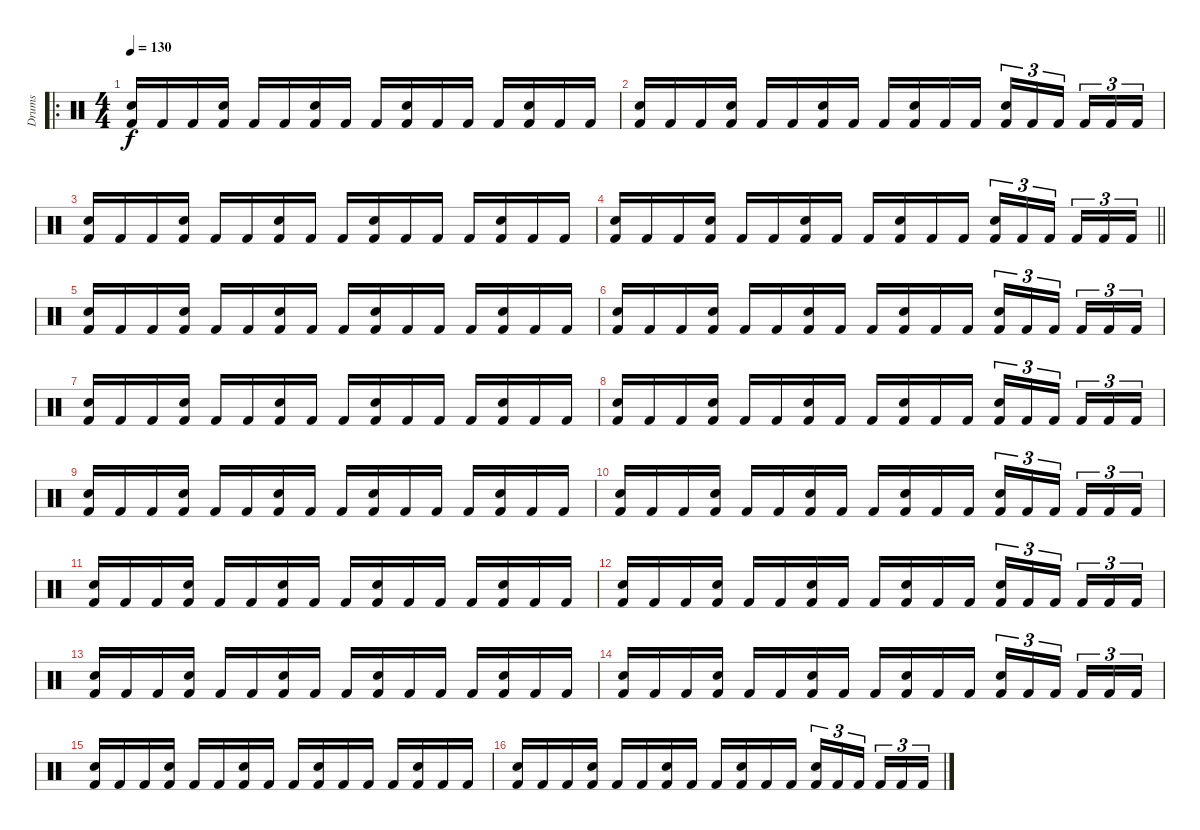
\track ("Drums" "Drums") {instrument percussion}
\staff {score}
\articulation defaults
\ro
\ts (4 4)
\tempo 130
\clef neutral
\ks c
("Electric Snare (hit)" "Kick (hit) 2").16{dy f} "Kick (hit) 2".16 "Kick (hit) 2".16 ("Electric Snare (hit)" "Kick (hit) 2").16 "Kick (hit) 2".16 "Kick (hit) 2".16 ("Electric Snare (hit)" "Kick (hit) 2").16 "Kick (hit) 2".16 "Kick (hit) 2".16 ("Electric Snare (hit)" "Kick (hit) 2").16 "Kick (hit) 2".16 "Kick (hit) 2".16 "Kick (hit) 2".16 ("Electric Snare (hit)" "Kick (hit) 2").16 "Kick (hit) 2".16 "Kick (hit) 2".16 |
("Electric Snare (hit)" "Kick (hit) 2").16 "Kick (hit) 2".16 "Kick (hit) 2".16 ("Electric Snare (hit)" "Kick (hit) 2").16 "Kick (hit) 2".16 "Kick (hit) 2".16 ("Electric Snare (hit)" "Kick (hit) 2").16 "Kick (hit) 2".16 "Kick (hit) 2".16 ("Electric Snare (hit)" "Kick (hit) 2").16 "Kick (hit) 2".16 "Kick (hit) 2".16 ("Electric Snare (hit)" "Kick (hit) 2").16{tu (3 2)} "Kick (hit) 2".16{tu (3 2)} "Kick (hit) 2".16{tu (3 2)} "Kick (hit) 2".16{tu (3 2)} "Kick (hit) 2".16{tu (3 2)} "Kick (hit) 2".16{tu (3 2)} |
("Electric Snare (hit)" "Kick (hit) 2").16 "Kick (hit) 2".16 "Kick (hit) 2".16 ("Electric Snare (hit)" "Kick (hit) 2").16 "Kick (hit) 2".16 "Kick (hit) 2".16 ("Electric Snare (hit)" "Kick (hit) 2").16 "Kick (hit) 2".16 "Kick (hit) 2".16 ("Electric Snare (hit)" "Kick (hit) 2").16 "Kick (hit) 2".16 "Kick (hit) 2".16 "Kick (hit) 2".16 ("Electric Snare (hit)" "Kick (hit) 2").16 "Kick (hit) 2".16 "Kick (hit) 2".16 |
\barLineRight lightlight
("Electric Snare (hit)" "Kick (hit) 2").16 "Kick (hit) 2".16 "Kick (hit) 2".16 ("Electric Snare (hit)" "Kick (hit) 2").16 "Kick (hit) 2".16 "Kick (hit) 2".16 ("Electric Snare (hit)" "Kick (hit) 2").16 "Kick (hit) 2".16 "Kick (hit) 2".16 ("Electric Snare (hit)" "Kick (hit) 2").16 "Kick (hit) 2".16 "Kick (hit) 2".16 ("Electric Snare (hit)" "Kick (hit) 2").16{tu (3 2)} "Kick (hit) 2".16{tu (3 2)} "Kick (hit) 2".16{tu (3 2)} "Kick (hit) 2".16{tu (3 2)} "Kick (hit) 2".16{tu (3 2)} "Kick (hit) 2".16{tu (3 2)} |
("Electric Snare (hit)" "Kick (hit) 2").16 "Kick (hit) 2".16 "Kick (hit) 2".16 ("Electric Snare (hit)" "Kick (hit) 2").16 "Kick (hit) 2".16 "Kick (hit) 2".16 ("Electric Snare (hit)" "Kick (hit) 2").16 "Kick (hit) 2".16 "Kick (hit) 2".16 ("Electric Snare (hit)" "Kick (hit) 2").16 "Kick (hit) 2".16 "Kick (hit) 2".16 "Kick (hit) 2".16 ("Electric Snare (hit)" "Kick (hit) 2").16 "Kick (hit) 2".16 "Kick (hit) 2".16 |
("Electric Snare (hit)" "Kick (hit) 2").16 "Kick (hit) 2".16 "Kick (hit) 2".16 ("Electric Snare (hit)" "Kick (hit) 2").16 "Kick (hit) 2".16 "Kick (hit) 2".16 ("Electric Snare (hit)" "Kick (hit) 2").16 "Kick (hit) 2".16 "Kick (hit) 2".16 ("Electric Snare (hit)" "Kick (hit) 2").16 "Kick (hit) 2".16 "Kick (hit) 2".16 ("Electric Snare (hit)" "Kick (hit) 2").16{tu (3 2)} "Kick (hit) 2".16{tu (3 2)} "Kick (hit) 2".16{tu (3 2)} "Kick (hit) 2".16{tu (3 2)} "Kick (hit) 2".16{tu (3 2)} "Kick (hit) 2".16{tu (3 2)} |
("Electric Snare (hit)" "Kick (hit) 2").16 "Kick (hit) 2".16 "Kick (hit) 2".16 ("Electric Snare (hit)" "Kick (hit) 2").16 "Kick (hit) 2".16 "Kick (hit) 2".16 ("Electric Snare (hit)" "Kick (hit) 2").16 "Kick (hit) 2".16 "Kick (hit) 2".16 ("Electric Snare (hit)" "Kick (hit) 2").16 "Kick (hit) 2".16 "Kick (hit) 2".16 "Kick (hit) 2".16 ("Electric Snare (hit)" "Kick (hit) 2").16 "Kick (hit) 2".16 "Kick (hit) 2".16 |
("Electric Snare (hit)" "Kick (hit) 2").16 "Kick (hit) 2".16 "Kick (hit) 2".16 ("Electric Snare (hit)" "Kick (hit) 2").16 "Kick (hit) 2".16 "Kick (hit) 2".16 ("Electric Snare (hit)" "Kick (hit) 2").16 "Kick (hit) 2".16 "Kick (hit) 2".16 ("Electric Snare (hit)" "Kick (hit) 2").16 "Kick (hit) 2".16 "Kick (hit) 2".16 ("Electric Snare (hit)" "Kick (hit) 2").16{tu (3 2)} "Kick (hit) 2".16{tu (3 2)} "Kick (hit) 2".16{tu (3 2)} "Kick (hit) 2".16{tu (3 2)} "Kick (hit) 2".16{tu (3 2)} "Kick (hit) 2".16{tu (3 2)} |
("Electric Snare (hit)" "Kick (hit) 2").16 "Kick (hit) 2".16 "Kick (hit) 2".16 ("Electric Snare (hit)" "Kick (hit) 2").16 "Kick (hit) 2".16 "Kick (hit) 2".16 ("Electric Snare (hit)" "Kick (hit) 2").16 "Kick (hit) 2".16 "Kick (hit) 2".16 ("Electric Snare (hit)" "Kick (hit) 2").16 "Kick (hit) 2".16 "Kick (hit) 2".16 "Kick (hit) 2".16 ("Electric Snare (hit)" "Kick (hit) 2").16 "Kick (hit) 2".16 "Kick (hit) 2".16 |
("Electric Snare (hit)" "Kick (hit) 2").16 "Kick (hit) 2".16 "Kick (hit) 2".16 ("Electric Snare (hit)" "Kick (hit) 2").16 "Kick (hit) 2".16 "Kick (hit) 2".16 ("Electric Snare (hit)" "Kick (hit) 2").16 "Kick (hit) 2".16 "Kick (hit) 2".16 ("Electric Snare (hit)" "Kick (hit) 2").16 "Kick (hit) 2".16 "Kick (hit) 2".16 ("Electric Snare (hit)" "Kick (hit) 2").16{tu (3 2)} "Kick (hit) 2".16{tu (3 2)} "Kick (hit) 2".16{tu (3 2)} "Kick (hit) 2".16{tu (3 2)} "Kick (hit) 2".16{tu (3 2)} "Kick (hit) 2".16{tu (3 2)} |
("Electric Snare (hit)" "Kick (hit) 2").16 "Kick (hit) 2".16 "Kick (hit) 2".16 ("Electric Snare (hit)" "Kick (hit) 2").16 "Kick (hit) 2".16 "Kick (hit) 2".16 ("Electric Snare (hit)" "Kick (hit) 2").16 "Kick (hit) 2".16 "Kick (hit) 2".16 ("Electric Snare (hit)" "Kick (hit) 2").16 "Kick (hit) 2".16 "Kick (hit) 2".16 "Kick (hit) 2".16 ("Electric Snare (hit)" "Kick (hit) 2").16 "Kick (hit) 2".16 "Kick (hit) 2".16 |
("Electric Snare (hit)" "Kick (hit) 2").16 "Kick (hit) 2".16 "Kick (hit) 2".16 ("Electric Snare (hit)" "Kick (hit) 2").16 "Kick (hit) 2".16 "Kick (hit) 2".16 ("Electric Snare (hit)" "Kick (hit) 2").16 "Kick (hit) 2".16 "Kick (hit) 2".16 ("Electric Snare (hit)" "Kick (hit) 2").16 "Kick (hit) 2".16 "Kick (hit) 2".16 ("Electric Snare (hit)" "Kick (hit) 2").16{tu (3 2)} "Kick (hit) 2".16{tu (3 2)} "Kick (hit) 2".16{tu (3 2)} "Kick (hit) 2".16{tu (3 2)} "Kick (hit) 2".16{tu (3 2)} "Kick (hit) 2".16{tu (3 2)} |
("Electric Snare (hit)" "Kick (hit) 2").16 "Kick (hit) 2".16 "Kick (hit) 2".16 ("Electric Snare (hit)" "Kick (hit) 2").16 "Kick (hit) 2".16 "Kick (hit) 2".16 ("Electric Snare (hit)" "Kick (hit) 2").16 "Kick (hit) 2".16 "Kick (hit) 2".16 ("Electric Snare (hit)" "Kick (hit) 2").16 "Kick (hit) 2".16 "Kick (hit) 2".16 "Kick (hit) 2".16 ("Electric Snare (hit)" "Kick (hit) 2").16 "Kick (hit) 2".16 "Kick (hit) 2".16 |
("Electric Snare (hit)" "Kick (hit) 2").16 "Kick (hit) 2".16 "Kick (hit) 2".16 ("Electric Snare (hit)" "Kick (hit) 2").16 "Kick (hit) 2".16 "Kick (hit) 2".16 ("Electric Snare (hit)" "Kick (hit) 2").16 "Kick (hit) 2".16 "Kick (hit) 2".16 ("Electric Snare (hit)" "Kick (hit) 2").16 "Kick (hit) 2".16 "Kick (hit) 2".16 ("Electric Snare (hit)" "Kick (hit) 2").16{tu (3 2)} "Kick (hit) 2".16{tu (3 2)} "Kick (hit) 2".16{tu (3 2)} "Kick (hit) 2".16{tu (3 2)} "Kick (hit) 2".16{tu (3 2)} "Kick (hit) 2".16{tu (3 2)} |
("Electric Snare (hit)" "Kick (hit) 2").16 "Kick (hit) 2".16 "Kick (hit) 2".16 ("Electric Snare (hit)" "Kick (hit) 2").16 "Kick (hit) 2".16 "Kick (hit) 2".16 ("Electric Snare (hit)" "Kick (hit) 2").16 "Kick (hit) 2".16 "Kick (hit) 2".16 ("Electric Snare (hit)" "Kick (hit) 2").16 "Kick (hit) 2".16 "Kick (hit) 2".16 "Kick (hit) 2".16 ("Electric Snare (hit)" "Kick (hit) 2").16 "Kick (hit) 2".16 "Kick (hit) 2".16 |
("Electric Snare (hit)" "Kick (hit) 2").16 "Kick (hit) 2".16 "Kick (hit) 2".16 ("Electric Snare (hit)" "Kick (hit) 2").16 "Kick (hit) 2".16 "Kick (hit) 2".16 ("Electric Snare (hit)" "Kick (hit) 2").16 "Kick (hit) 2".16 "Kick (hit) 2".16 ("Electric Snare (hit)" "Kick (hit) 2").16 "Kick (hit) 2".16 "Kick (hit) 2".16 ("Electric Snare (hit)" "Kick (hit) 2").16{tu (3 2)} "Kick (hit) 2".16{tu (3 2)} "Kick (hit) 2".16{tu (3 2)} "Kick (hit) 2".16{tu (3 2)} "Kick (hit) 2".16{tu (3 2)} "Kick (hit) 2".16{tu (3 2)}
